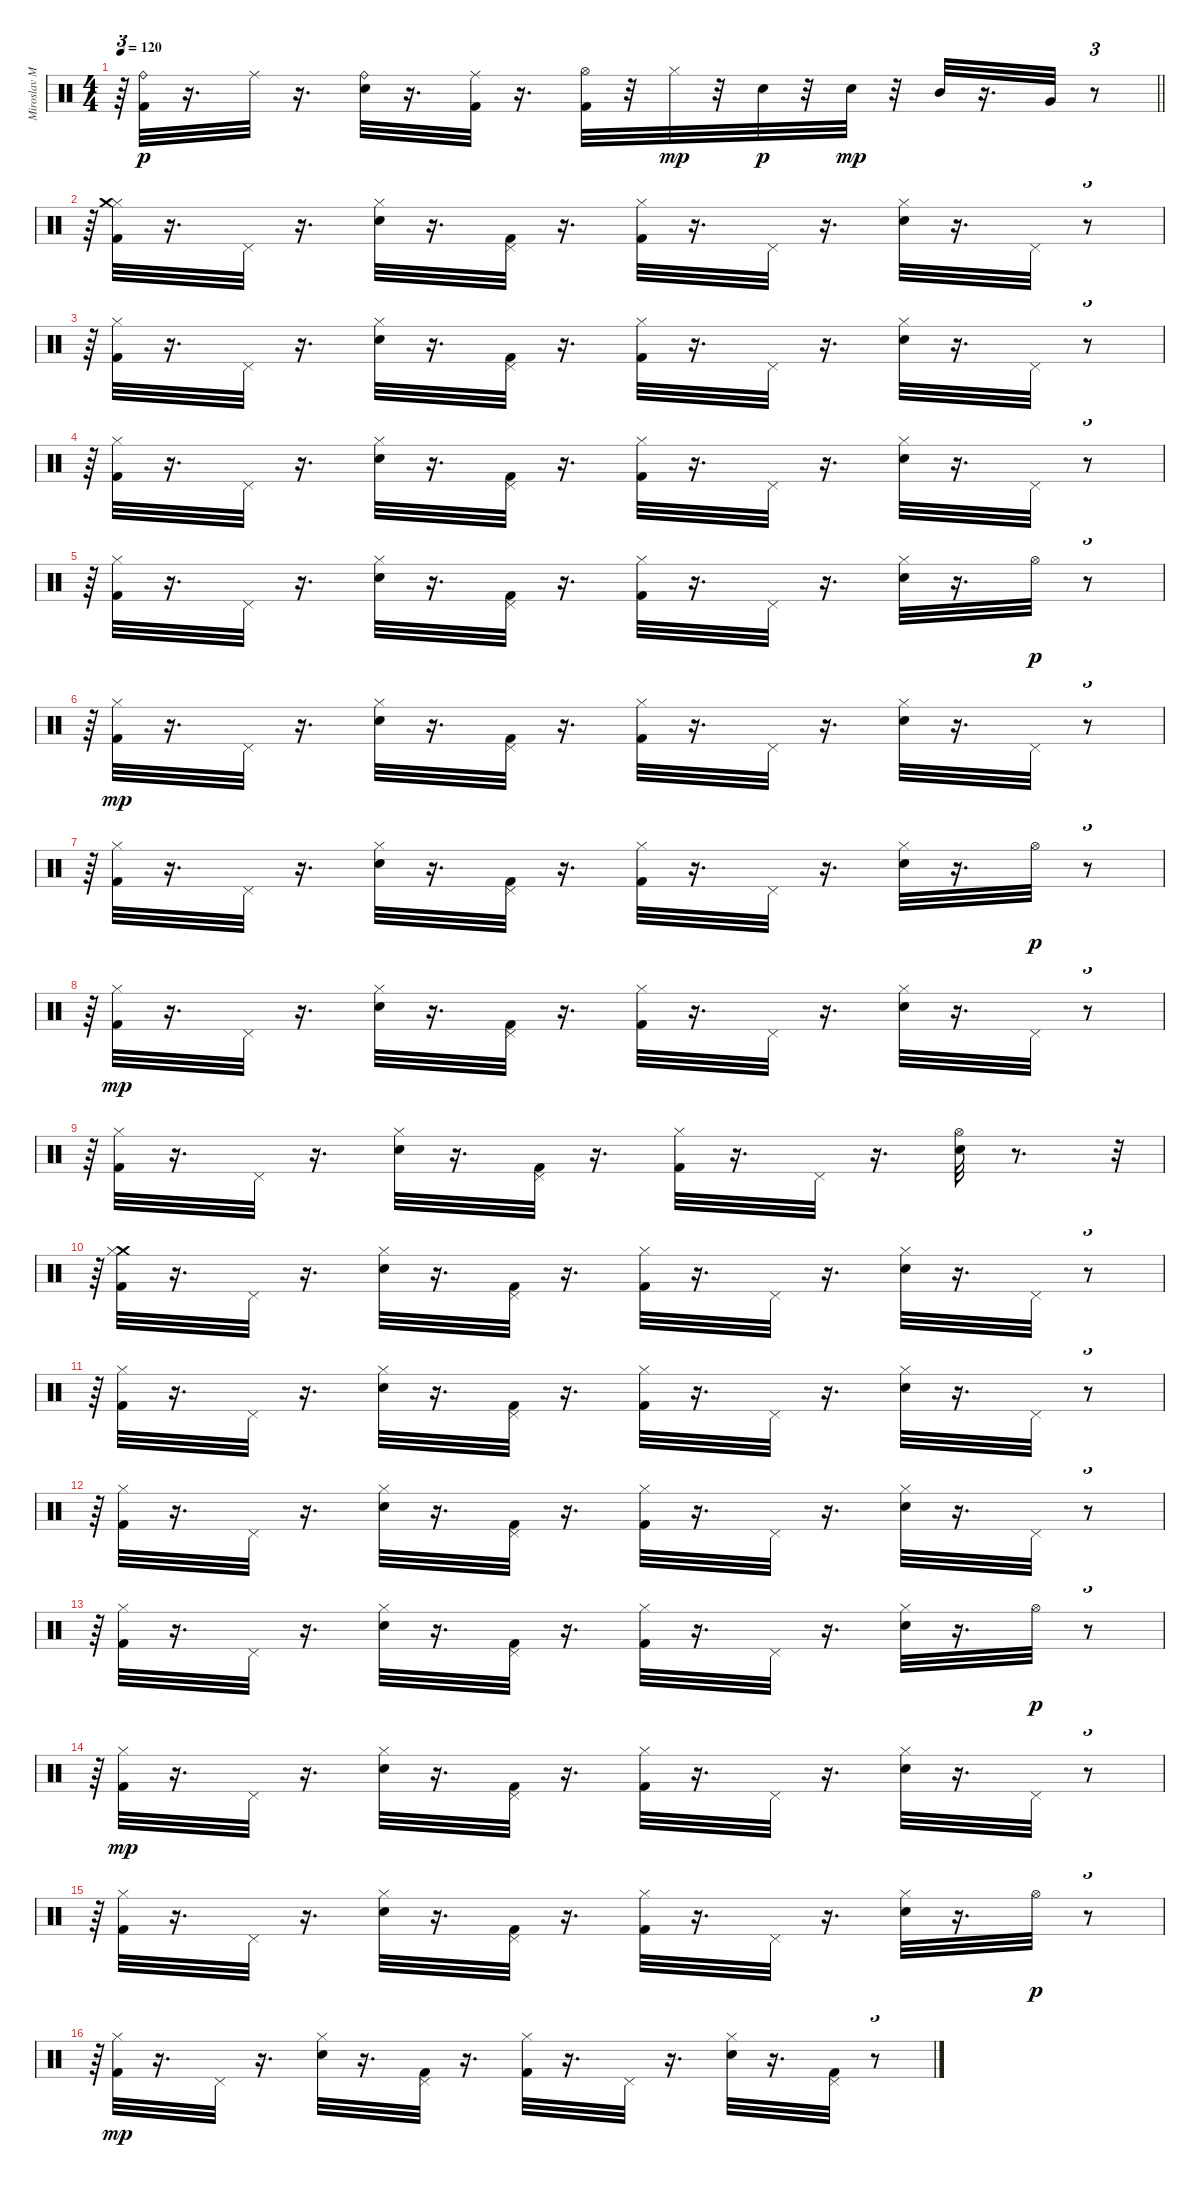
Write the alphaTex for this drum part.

\track ("Miroslav Milatovic-Vicko-bubnjevi" "Miroslav M") {instrument percussion}
\staff {score}
\articulation defaults
\ts (4 4)
\tempo 120
\clef neutral
\barLineRight lightlight
\ks c
r.64{tu (3 2) dy p} ("Kick (hit) 2" "Ride (bell)").32 r.16{d} "Ride (middle)".32 r.16{d} ("Electric Snare (hit)" "Ride (bell)").32 r.16{d} ("Kick (hit) 2" "Ride (middle)").32 r.16{d} ("Hi-Hat (open)" "Kick (hit) 2").32 r.32 "Hi-Hat (closed)".32{dy mp} r.32 "Electric Snare (hit)".32{dy p} r.32 "Electric Snare (hit)".32{dy mp} r.32 "Mid Tom (hit)".32 r.16{d} "Very Low Tom (hit)".32 r.8{tu (3 2)} |
r.64{tu (3 2)} ("Hi-Hat (closed)" "Kick (hit) 2" "Crash medium (hit)").32 r.16{d} "Pedal Hi-Hat (hit)".32 r.16{d} ("Hi-Hat (closed)" "Electric Snare (hit)").32 r.16{d} ("Pedal Hi-Hat (hit)" "Kick (hit) 2").32 r.16{d} ("Hi-Hat (closed)" "Kick (hit) 2").32 r.16{d} "Pedal Hi-Hat (hit)".32 r.16{d} ("Hi-Hat (closed)" "Electric Snare (hit)").32 r.16{d} "Pedal Hi-Hat (hit)".32 r.8{tu (3 2)} |
r.64{tu (3 2)} ("Kick (hit) 2" "Hi-Hat (closed)").32 r.16{d} "Pedal Hi-Hat (hit)".32 r.16{d} ("Electric Snare (hit)" "Hi-Hat (closed)").32 r.16{d} ("Kick (hit) 2" "Pedal Hi-Hat (hit)").32 r.16{d} ("Kick (hit) 2" "Hi-Hat (closed)").32 r.16{d} "Pedal Hi-Hat (hit)".32 r.16{d} ("Electric Snare (hit)" "Hi-Hat (closed)").32 r.16{d} "Pedal Hi-Hat (hit)".32 r.8{tu (3 2)} |
r.64{tu (3 2)} ("Kick (hit) 2" "Hi-Hat (closed)").32 r.16{d} "Pedal Hi-Hat (hit)".32 r.16{d} ("Electric Snare (hit)" "Hi-Hat (closed)").32 r.16{d} ("Kick (hit) 2" "Pedal Hi-Hat (hit)").32 r.16{d} ("Kick (hit) 2" "Hi-Hat (closed)").32 r.16{d} "Pedal Hi-Hat (hit)".32 r.16{d} ("Electric Snare (hit)" "Hi-Hat (closed)").32 r.16{d} "Pedal Hi-Hat (hit)".32 r.8{tu (3 2)} |
r.64{tu (3 2)} ("Hi-Hat (closed)" "Kick (hit) 2").32 r.16{d} "Pedal Hi-Hat (hit)".32 r.16{d} ("Hi-Hat (closed)" "Electric Snare (hit)").32 r.16{d} ("Pedal Hi-Hat (hit)" "Kick (hit) 2").32 r.16{d} ("Hi-Hat (closed)" "Kick (hit) 2").32 r.16{d} "Pedal Hi-Hat (hit)".32 r.16{d} ("Hi-Hat (closed)" "Electric Snare (hit)").32 r.16{d} "Hi-Hat (open)".32{dy p} r.8{tu (3 2)} |
r.64{tu (3 2)} ("Kick (hit) 2" "Hi-Hat (closed)").32{dy mp} r.16{d} "Pedal Hi-Hat (hit)".32 r.16{d} ("Electric Snare (hit)" "Hi-Hat (closed)").32 r.16{d} ("Kick (hit) 2" "Pedal Hi-Hat (hit)").32 r.16{d} ("Kick (hit) 2" "Hi-Hat (closed)").32 r.16{d} "Pedal Hi-Hat (hit)".32 r.16{d} ("Electric Snare (hit)" "Hi-Hat (closed)").32 r.16{d} "Pedal Hi-Hat (hit)".32 r.8{tu (3 2)} |
r.64{tu (3 2)} ("Hi-Hat (closed)" "Kick (hit) 2").32 r.16{d} "Pedal Hi-Hat (hit)".32 r.16{d} ("Hi-Hat (closed)" "Electric Snare (hit)").32 r.16{d} ("Pedal Hi-Hat (hit)" "Kick (hit) 2").32 r.16{d} ("Hi-Hat (closed)" "Kick (hit) 2").32 r.16{d} "Pedal Hi-Hat (hit)".32 r.16{d} ("Hi-Hat (closed)" "Electric Snare (hit)").32 r.16{d} "Hi-Hat (open)".32{dy p} r.8{tu (3 2)} |
r.64{tu (3 2)} ("Hi-Hat (closed)" "Kick (hit) 2").32{dy mp} r.16{d} "Pedal Hi-Hat (hit)".32 r.16{d} ("Hi-Hat (closed)" "Electric Snare (hit)").32 r.16{d} ("Pedal Hi-Hat (hit)" "Kick (hit) 2").32 r.16{d} ("Hi-Hat (closed)" "Kick (hit) 2").32 r.16{d} "Pedal Hi-Hat (hit)".32 r.16{d} ("Hi-Hat (closed)" "Electric Snare (hit)").32 r.16{d} "Pedal Hi-Hat (hit)".32 r.8{tu (3 2)} |
r.64{tu (3 2)} ("Kick (hit) 2" "Hi-Hat (closed)").32 r.16{d} "Pedal Hi-Hat (hit)".32 r.16{d} ("Electric Snare (hit)" "Hi-Hat (closed)").32 r.16{d} ("Kick (hit) 2" "Pedal Hi-Hat (hit)").32 r.16{d} ("Kick (hit) 2" "Hi-Hat (closed)").32 r.16{d} "Pedal Hi-Hat (hit)".32 r.16{d} ("Hi-Hat (open)" "Electric Snare (hit)").32 r.8{d} r.32{tu (3 2)} |
r.64{tu (3 2)} ("Crash medium (hit)" "Kick (hit) 2" "Hi-Hat (closed)").32 r.16{d} "Pedal Hi-Hat (hit)".32 r.16{d} ("Electric Snare (hit)" "Hi-Hat (closed)").32 r.16{d} ("Kick (hit) 2" "Pedal Hi-Hat (hit)").32 r.16{d} ("Kick (hit) 2" "Hi-Hat (closed)").32 r.16{d} "Pedal Hi-Hat (hit)".32 r.16{d} ("Electric Snare (hit)" "Hi-Hat (closed)").32 r.16{d} "Pedal Hi-Hat (hit)".32 r.8{tu (3 2)} |
r.64{tu (3 2)} ("Hi-Hat (closed)" "Kick (hit) 2").32 r.16{d} "Pedal Hi-Hat (hit)".32 r.16{d} ("Hi-Hat (closed)" "Electric Snare (hit)").32 r.16{d} ("Pedal Hi-Hat (hit)" "Kick (hit) 2").32 r.16{d} ("Hi-Hat (closed)" "Kick (hit) 2").32 r.16{d} "Pedal Hi-Hat (hit)".32 r.16{d} ("Hi-Hat (closed)" "Electric Snare (hit)").32 r.16{d} "Pedal Hi-Hat (hit)".32 r.8{tu (3 2)} |
r.64{tu (3 2)} ("Hi-Hat (closed)" "Kick (hit) 2").32 r.16{d} "Pedal Hi-Hat (hit)".32 r.16{d} ("Hi-Hat (closed)" "Electric Snare (hit)").32 r.16{d} ("Pedal Hi-Hat (hit)" "Kick (hit) 2").32 r.16{d} ("Hi-Hat (closed)" "Kick (hit) 2").32 r.16{d} "Pedal Hi-Hat (hit)".32 r.16{d} ("Hi-Hat (closed)" "Electric Snare (hit)").32 r.16{d} "Pedal Hi-Hat (hit)".32 r.8{tu (3 2)} |
r.64{tu (3 2)} ("Kick (hit) 2" "Hi-Hat (closed)").32 r.16{d} "Pedal Hi-Hat (hit)".32 r.16{d} ("Electric Snare (hit)" "Hi-Hat (closed)").32 r.16{d} ("Kick (hit) 2" "Pedal Hi-Hat (hit)").32 r.16{d} ("Kick (hit) 2" "Hi-Hat (closed)").32 r.16{d} "Pedal Hi-Hat (hit)".32 r.16{d} ("Electric Snare (hit)" "Hi-Hat (closed)").32 r.16{d} "Hi-Hat (open)".32{dy p} r.8{tu (3 2)} |
r.64{tu (3 2)} ("Hi-Hat (closed)" "Kick (hit) 2").32{dy mp} r.16{d} "Pedal Hi-Hat (hit)".32 r.16{d} ("Hi-Hat (closed)" "Electric Snare (hit)").32 r.16{d} ("Pedal Hi-Hat (hit)" "Kick (hit) 2").32 r.16{d} ("Hi-Hat (closed)" "Kick (hit) 2").32 r.16{d} "Pedal Hi-Hat (hit)".32 r.16{d} ("Hi-Hat (closed)" "Electric Snare (hit)").32 r.16{d} "Pedal Hi-Hat (hit)".32 r.8{tu (3 2)} |
r.64{tu (3 2)} ("Kick (hit) 2" "Hi-Hat (closed)").32 r.16{d} "Pedal Hi-Hat (hit)".32 r.16{d} ("Electric Snare (hit)" "Hi-Hat (closed)").32 r.16{d} ("Kick (hit) 2" "Pedal Hi-Hat (hit)").32 r.16{d} ("Kick (hit) 2" "Hi-Hat (closed)").32 r.16{d} "Pedal Hi-Hat (hit)".32 r.16{d} ("Electric Snare (hit)" "Hi-Hat (closed)").32 r.16{d} "Hi-Hat (open)".32{dy p} r.8{tu (3 2)} |
r.64{tu (3 2)} ("Kick (hit) 2" "Hi-Hat (closed)").32{dy mp} r.16{d} "Pedal Hi-Hat (hit)".32 r.16{d} ("Electric Snare (hit)" "Hi-Hat (closed)").32 r.16{d} ("Kick (hit) 2" "Pedal Hi-Hat (hit)").32 r.16{d} ("Kick (hit) 2" "Hi-Hat (closed)").32 r.16{d} "Pedal Hi-Hat (hit)".32 r.16{d} ("Electric Snare (hit)" "Hi-Hat (closed)").32 r.16{d} ("Kick (hit) 2" "Pedal Hi-Hat (hit)").32 r.8{tu (3 2)}
